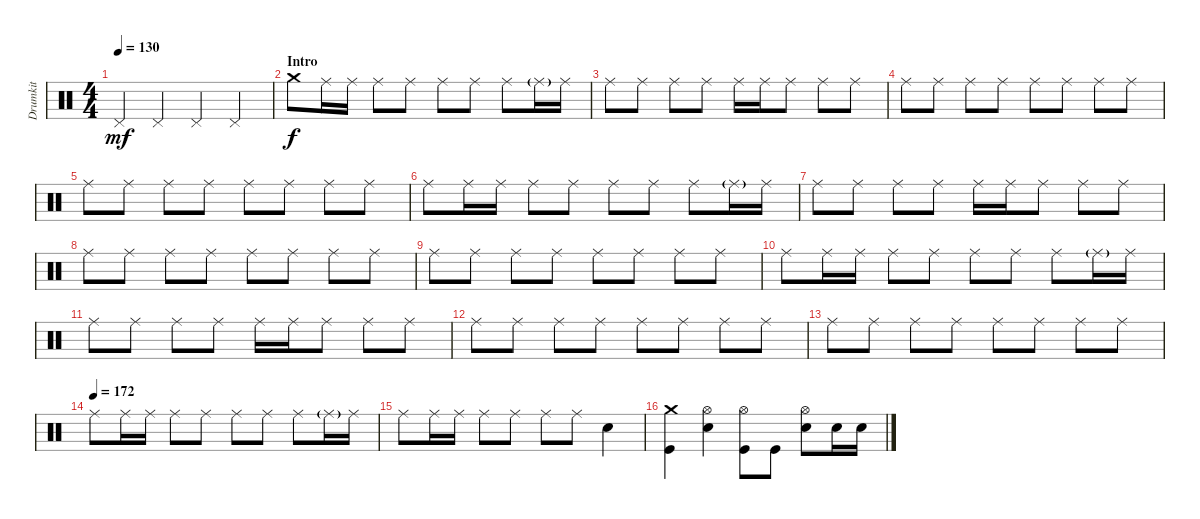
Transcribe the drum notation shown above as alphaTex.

\track ("Drumkit" "Drumkit") {instrument percussion}
\staff {score}
\articulation defaults
\ts (4 4)
\tempo 130
\clef neutral
\ks c "Pedal Hi-Hat (hit)".4{dy mf} "Pedal Hi-Hat (hit)".4 "Pedal Hi-Hat (hit)".4 "Pedal Hi-Hat (hit)".4
|
\section ("" "Intro")
"Crash medium (hit)".8{dy f} "Ride (middle)".16 "Ride (middle)".16 "Ride (middle)".8 "Ride (middle)".8 "Ride (middle)".8 "Ride (middle)".8 "Ride (middle)".8 "Ride (middle)"{g}.16 "Ride (middle)".16 |
"Ride (middle)".8 "Ride (middle)".8 "Ride (middle)".8 "Ride (middle)".8 "Ride (middle)".16 "Ride (middle)".16 "Ride (middle)".8 "Ride (middle)".8 "Ride (middle)".8 |
"Ride (middle)".8 "Ride (middle)".8 "Ride (middle)".8 "Ride (middle)".8 "Ride (middle)".8 "Ride (middle)".8 "Ride (middle)".8 "Ride (middle)".8 |
"Ride (middle)".8 "Ride (middle)".8 "Ride (middle)".8 "Ride (middle)".8 "Ride (middle)".8 "Ride (middle)".8 "Ride (middle)".8 "Ride (middle)".8 |
"Ride (middle)".8 "Ride (middle)".16 "Ride (middle)".16 "Ride (middle)".8 "Ride (middle)".8 "Ride (middle)".8 "Ride (middle)".8 "Ride (middle)".8 "Ride (middle)"{g}.16 "Ride (middle)".16 |
"Ride (middle)".8 "Ride (middle)".8 "Ride (middle)".8 "Ride (middle)".8 "Ride (middle)".16 "Ride (middle)".16 "Ride (middle)".8 "Ride (middle)".8 "Ride (middle)".8 |
"Ride (middle)".8 "Ride (middle)".8 "Ride (middle)".8 "Ride (middle)".8 "Ride (middle)".8 "Ride (middle)".8 "Ride (middle)".8 "Ride (middle)".8 |
"Ride (middle)".8 "Ride (middle)".8 "Ride (middle)".8 "Ride (middle)".8 "Ride (middle)".8 "Ride (middle)".8 "Ride (middle)".8 "Ride (middle)".8 |
"Ride (middle)".8 "Ride (middle)".16 "Ride (middle)".16 "Ride (middle)".8 "Ride (middle)".8 "Ride (middle)".8 "Ride (middle)".8 "Ride (middle)".8 "Ride (middle)"{g}.16 "Ride (middle)".16 |
"Ride (middle)".8 "Ride (middle)".8 "Ride (middle)".8 "Ride (middle)".8 "Ride (middle)".16 "Ride (middle)".16 "Ride (middle)".8 "Ride (middle)".8 "Ride (middle)".8 |
"Ride (middle)".8 "Ride (middle)".8 "Ride (middle)".8 "Ride (middle)".8 "Ride (middle)".8 "Ride (middle)".8 "Ride (middle)".8 "Ride (middle)".8 |
"Ride (middle)".8 "Ride (middle)".8 "Ride (middle)".8 "Ride (middle)".8 "Ride (middle)".8 "Ride (middle)".8 "Ride (middle)".8 "Ride (middle)".8 |
\tempo (172)
"Ride (middle)".8 "Ride (middle)".16 "Ride (middle)".16 "Ride (middle)".8 "Ride (middle)".8 "Ride (middle)".8 "Ride (middle)".8 "Ride (middle)".8 "Ride (middle)"{g}.16 "Ride (middle)".16 |
"Ride (middle)".8 "Ride (middle)".16 "Ride (middle)".16 "Ride (middle)".8 "Ride (middle)".8 "Ride (middle)".8 "Ride (middle)".8 "Snare (hit) 2".4 |
("Crash medium (hit)" "Kick (hit)").4 ("Hi-Hat (open)" "Snare (hit) 2").4 ("Hi-Hat (open)" "Kick (hit)").8 "Kick (hit)".8 ("Hi-Hat (open)" "Snare (hit) 2").8 "Snare (hit) 2".16 "Snare (hit) 2".16
